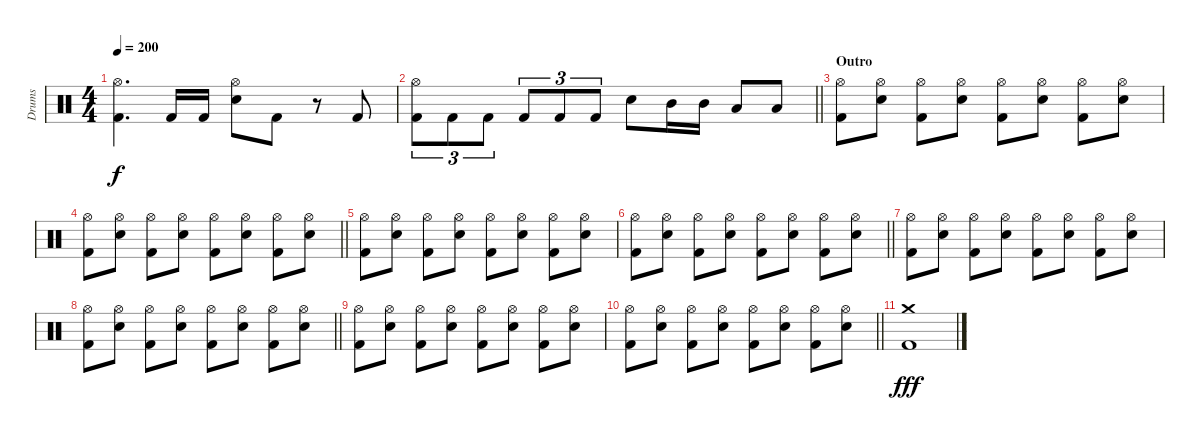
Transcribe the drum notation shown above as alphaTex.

\track ("Drums" "Drums") {instrument percussion}
\staff {score}
\articulation defaults
\ts (4 4)
\tempo 200
\clef neutral
\ks c
("Hi-Hat (open)" "Kick (hit) 2").4{d dy f} "Kick (hit) 2".16 "Kick (hit) 2".16 ("Hi-Hat (open)" "Electric Snare (hit)").8 "Kick (hit) 2".8 r.8 "Kick (hit) 2".8 |
\barLineRight lightlight
("Hi-Hat (open)" "Kick (hit) 2").8{tu (3 2)} "Kick (hit) 2".8{tu (3 2)} "Kick (hit) 2".8{tu (3 2)} "Kick (hit) 2".8{tu (3 2)} "Kick (hit) 2".8{tu (3 2)} "Kick (hit) 2".8{tu (3 2)} "Electric Snare (hit)".8 "Mid Tom (hit)".16 "Mid Tom (hit)".16 "Low Tom (hit)".8 "Low Tom (hit)".8 |
\section ("" "Outro")
("Hi-Hat (open)" "Kick (hit) 2").8 ("Hi-Hat (open)" "Electric Snare (hit)").8 ("Hi-Hat (open)" "Kick (hit) 2").8 ("Hi-Hat (open)" "Electric Snare (hit)").8 ("Hi-Hat (open)" "Kick (hit) 2").8 ("Hi-Hat (open)" "Electric Snare (hit)").8 ("Hi-Hat (open)" "Kick (hit) 2").8 ("Hi-Hat (open)" "Electric Snare (hit)").8 |
\barLineRight lightlight
("Hi-Hat (open)" "Kick (hit) 2").8 ("Hi-Hat (open)" "Electric Snare (hit)").8 ("Hi-Hat (open)" "Kick (hit) 2").8 ("Hi-Hat (open)" "Electric Snare (hit)").8 ("Hi-Hat (open)" "Kick (hit) 2").8 ("Hi-Hat (open)" "Electric Snare (hit)").8 ("Hi-Hat (open)" "Kick (hit) 2").8 ("Hi-Hat (open)" "Electric Snare (hit)").8 |
("Hi-Hat (open)" "Kick (hit) 2").8 ("Hi-Hat (open)" "Electric Snare (hit)").8 ("Hi-Hat (open)" "Kick (hit) 2").8 ("Hi-Hat (open)" "Electric Snare (hit)").8 ("Hi-Hat (open)" "Kick (hit) 2").8 ("Hi-Hat (open)" "Electric Snare (hit)").8 ("Hi-Hat (open)" "Kick (hit) 2").8 ("Hi-Hat (open)" "Electric Snare (hit)").8 |
\barLineRight lightlight
("Hi-Hat (open)" "Kick (hit) 2").8 ("Hi-Hat (open)" "Electric Snare (hit)").8 ("Hi-Hat (open)" "Kick (hit) 2").8 ("Hi-Hat (open)" "Electric Snare (hit)").8 ("Hi-Hat (open)" "Kick (hit) 2").8 ("Hi-Hat (open)" "Electric Snare (hit)").8 ("Hi-Hat (open)" "Kick (hit) 2").8 ("Hi-Hat (open)" "Electric Snare (hit)").8 |
("Hi-Hat (open)" "Kick (hit) 2").8 ("Hi-Hat (open)" "Electric Snare (hit)").8 ("Hi-Hat (open)" "Kick (hit) 2").8 ("Hi-Hat (open)" "Electric Snare (hit)").8 ("Hi-Hat (open)" "Kick (hit) 2").8 ("Hi-Hat (open)" "Electric Snare (hit)").8 ("Hi-Hat (open)" "Kick (hit) 2").8 ("Hi-Hat (open)" "Electric Snare (hit)").8 |
\barLineRight lightlight
("Hi-Hat (open)" "Kick (hit) 2").8 ("Hi-Hat (open)" "Electric Snare (hit)").8 ("Hi-Hat (open)" "Kick (hit) 2").8 ("Hi-Hat (open)" "Electric Snare (hit)").8 ("Hi-Hat (open)" "Kick (hit) 2").8 ("Hi-Hat (open)" "Electric Snare (hit)").8 ("Hi-Hat (open)" "Kick (hit) 2").8 ("Hi-Hat (open)" "Electric Snare (hit)").8 |
("Hi-Hat (open)" "Kick (hit) 2").8 ("Hi-Hat (open)" "Electric Snare (hit)").8 ("Hi-Hat (open)" "Kick (hit) 2").8 ("Hi-Hat (open)" "Electric Snare (hit)").8 ("Hi-Hat (open)" "Kick (hit) 2").8 ("Hi-Hat (open)" "Electric Snare (hit)").8 ("Hi-Hat (open)" "Kick (hit) 2").8 ("Hi-Hat (open)" "Electric Snare (hit)").8 |
\barLineRight lightlight
("Hi-Hat (open)" "Kick (hit) 2").8 ("Hi-Hat (open)" "Electric Snare (hit)").8 ("Hi-Hat (open)" "Kick (hit) 2").8 ("Hi-Hat (open)" "Electric Snare (hit)").8 ("Hi-Hat (open)" "Kick (hit) 2").8 ("Hi-Hat (open)" "Electric Snare (hit)").8 ("Hi-Hat (open)" "Kick (hit) 2").8 ("Hi-Hat (open)" "Electric Snare (hit)").8 |
("Crash medium (hit)" "Kick (hit) 2").1{dy fff}
